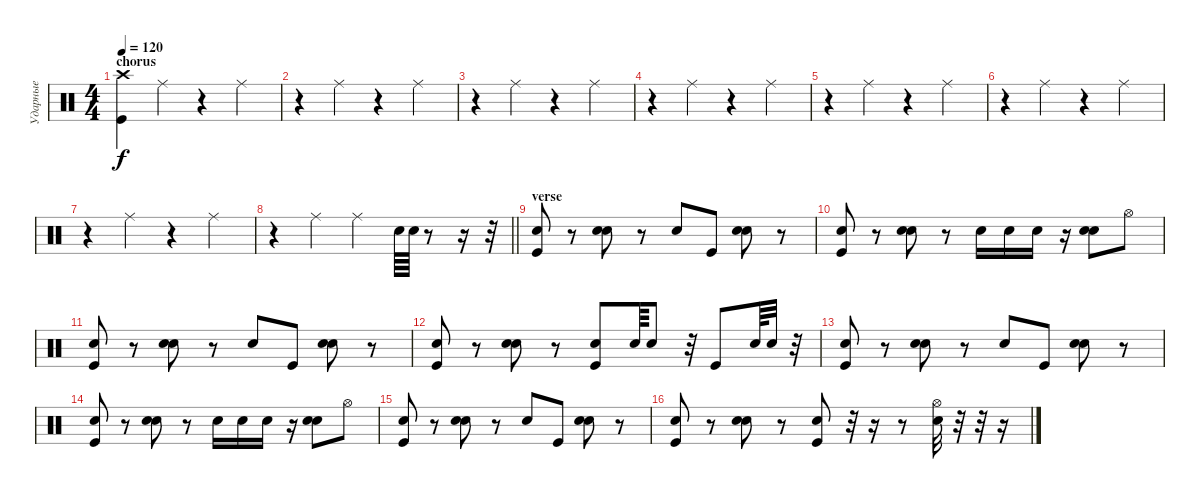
\track ("Ударные" "Ударные") {instrument percussion}
\staff {score}
\articulation defaults
\ts (4 4)
\section ("" "chorus")
\tempo 120
\clef neutral
\ks c
("Crash high (hit)" "Kick (hit)").4{dy f} "Ride (middle)".4 r.4 "Ride (middle)".4 |
r.4 "Ride (middle)".4 r.4 "Ride (middle)".4 |
r.4 "Ride (middle)".4 r.4 "Ride (middle)".4 |
r.4 "Ride (middle)".4 r.4 "Ride (middle)".4 |
r.4 "Ride (middle)".4 r.4 "Ride (middle)".4 |
r.4 "Ride (middle)".4 r.4 "Ride (middle)".4 |
r.4 "Ride (middle)".4 r.4 "Ride (middle)".4 |
\barLineRight lightlight
r.4 "Ride (middle)".4 "Ride (middle)".4 "Electric Snare (hit)".64 "Electric Snare (hit)".64 r.8 r.16 r.32 |
\section ("" "verse")
("Snare (hit) 2" "Kick (hit)").8 r.8 ("Electric Snare (hit)" "Snare (hit) 2").8 r.8 "Snare (hit) 2".8 "Kick (hit)".8 ("Electric Snare (hit)" "Snare (hit) 2").8 r.8 |
("Snare (hit) 2" "Kick (hit)").8 r.8 ("Electric Snare (hit)" "Snare (hit) 2").8 r.8 "Snare (hit) 2".16 "Snare (hit) 2".16 "Snare (hit) 2".16 r.16 ("Electric Snare (hit)" "Snare (hit) 2").8 "Hi-Hat (open)".8 |
("Snare (hit) 2" "Kick (hit)").8 r.8 ("Electric Snare (hit)" "Snare (hit) 2").8 r.8 "Snare (hit) 2".8 "Kick (hit)".8 ("Electric Snare (hit)" "Snare (hit) 2").8 r.8 |
("Snare (hit) 2" "Kick (hit)").8 r.8 ("Electric Snare (hit)" "Snare (hit) 2").8 r.8 ("Snare (hit) 2" "Kick (hit)").8 "Electric Snare (hit)".64 "Electric Snare (hit)".8 r.32 "Kick (hit)".8 "Electric Snare (hit)".64 "Electric Snare (hit)".32 r.32 |
("Snare (hit) 2" "Kick (hit)").8 r.8 ("Electric Snare (hit)" "Snare (hit) 2").8 r.8 "Snare (hit) 2".8 "Kick (hit)".8 ("Electric Snare (hit)" "Snare (hit) 2").8 r.8 |
("Snare (hit) 2" "Kick (hit)").8 r.8 ("Electric Snare (hit)" "Snare (hit) 2").8 r.8 "Snare (hit) 2".16 "Snare (hit) 2".16 "Snare (hit) 2".16 r.16 ("Electric Snare (hit)" "Snare (hit) 2").8 "Hi-Hat (open)".8 |
("Snare (hit) 2" "Kick (hit)").8 r.8 ("Electric Snare (hit)" "Snare (hit) 2").8 r.8 "Snare (hit) 2".8 "Kick (hit)".8 ("Electric Snare (hit)" "Snare (hit) 2").8 r.8 |
("Snare (hit) 2" "Kick (hit)").8 r.8 ("Electric Snare (hit)" "Snare (hit) 2").8 r.8 ("Snare (hit) 2" "Kick (hit)").8 r.32 r.16 r.8 ("Hi-Hat (open)" "Snare (hit) 2").32 r.32 r.32 r.16
